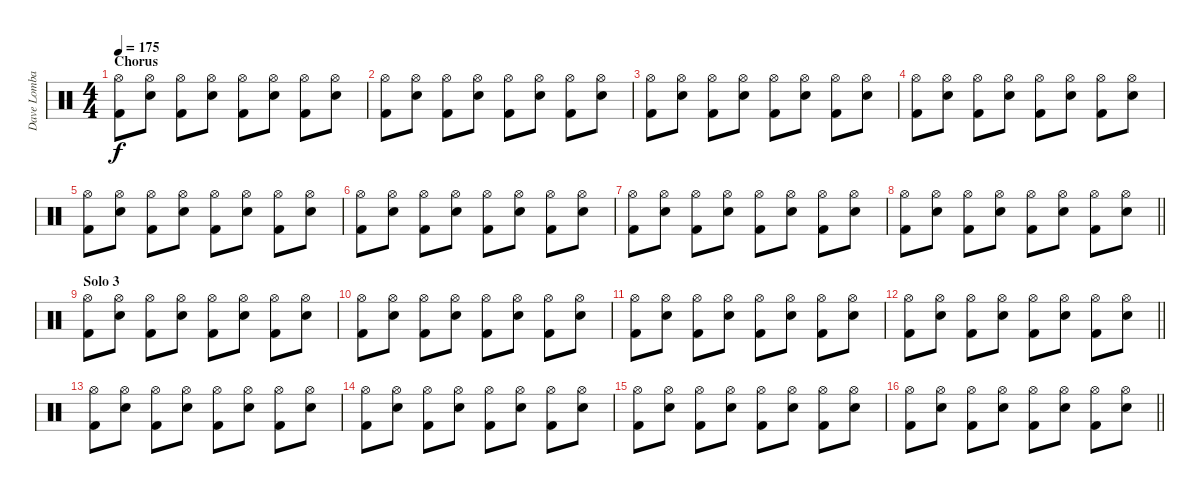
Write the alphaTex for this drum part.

\track ("Dave Lombardo" "Dave Lomba") {instrument percussion}
\staff {score}
\articulation defaults
\ts (4 4)
\section ("" "Chorus")
\tempo 175
\clef neutral
\ks c
("Hi-Hat (open)" "Kick (hit) 2").8{dy f} ("Hi-Hat (open)" "Snare (hit) 2").8 ("Hi-Hat (open)" "Kick (hit) 2").8 ("Hi-Hat (open)" "Snare (hit) 2").8 ("Hi-Hat (open)" "Kick (hit) 2").8 ("Hi-Hat (open)" "Snare (hit) 2").8 ("Hi-Hat (open)" "Kick (hit) 2").8 ("Hi-Hat (open)" "Snare (hit) 2").8 |
("Hi-Hat (open)" "Kick (hit) 2").8 ("Hi-Hat (open)" "Snare (hit) 2").8 ("Hi-Hat (open)" "Kick (hit) 2").8 ("Hi-Hat (open)" "Snare (hit) 2").8 ("Hi-Hat (open)" "Kick (hit) 2").8 ("Hi-Hat (open)" "Snare (hit) 2").8 ("Hi-Hat (open)" "Kick (hit) 2").8 ("Hi-Hat (open)" "Snare (hit) 2").8 |
("Hi-Hat (open)" "Kick (hit) 2").8 ("Hi-Hat (open)" "Snare (hit) 2").8 ("Hi-Hat (open)" "Kick (hit) 2").8 ("Hi-Hat (open)" "Snare (hit) 2").8 ("Hi-Hat (open)" "Kick (hit) 2").8 ("Hi-Hat (open)" "Snare (hit) 2").8 ("Hi-Hat (open)" "Kick (hit) 2").8 ("Hi-Hat (open)" "Snare (hit) 2").8 |
("Hi-Hat (open)" "Kick (hit) 2").8 ("Hi-Hat (open)" "Snare (hit) 2").8 ("Hi-Hat (open)" "Kick (hit) 2").8 ("Hi-Hat (open)" "Snare (hit) 2").8 ("Hi-Hat (open)" "Kick (hit) 2").8 ("Hi-Hat (open)" "Snare (hit) 2").8 ("Hi-Hat (open)" "Kick (hit) 2").8 ("Hi-Hat (open)" "Snare (hit) 2").8 |
("Hi-Hat (open)" "Kick (hit) 2").8 ("Hi-Hat (open)" "Snare (hit) 2").8 ("Hi-Hat (open)" "Kick (hit) 2").8 ("Hi-Hat (open)" "Snare (hit) 2").8 ("Hi-Hat (open)" "Kick (hit) 2").8 ("Hi-Hat (open)" "Snare (hit) 2").8 ("Hi-Hat (open)" "Kick (hit) 2").8 ("Hi-Hat (open)" "Snare (hit) 2").8 |
("Hi-Hat (open)" "Kick (hit) 2").8 ("Hi-Hat (open)" "Snare (hit) 2").8 ("Hi-Hat (open)" "Kick (hit) 2").8 ("Hi-Hat (open)" "Snare (hit) 2").8 ("Hi-Hat (open)" "Kick (hit) 2").8 ("Hi-Hat (open)" "Snare (hit) 2").8 ("Hi-Hat (open)" "Kick (hit) 2").8 ("Hi-Hat (open)" "Snare (hit) 2").8 |
("Hi-Hat (open)" "Kick (hit) 2").8 ("Hi-Hat (open)" "Snare (hit) 2").8 ("Hi-Hat (open)" "Kick (hit) 2").8 ("Hi-Hat (open)" "Snare (hit) 2").8 ("Hi-Hat (open)" "Kick (hit) 2").8 ("Hi-Hat (open)" "Snare (hit) 2").8 ("Hi-Hat (open)" "Kick (hit) 2").8 ("Hi-Hat (open)" "Snare (hit) 2").8 |
\barLineRight lightlight
("Hi-Hat (open)" "Kick (hit) 2").8 ("Hi-Hat (open)" "Snare (hit) 2").8 ("Hi-Hat (open)" "Kick (hit) 2").8 ("Hi-Hat (open)" "Snare (hit) 2").8 ("Hi-Hat (open)" "Kick (hit) 2").8 ("Hi-Hat (open)" "Snare (hit) 2").8 ("Hi-Hat (open)" "Kick (hit) 2").8 ("Hi-Hat (open)" "Snare (hit) 2").8 |
\section ("" "Solo 3")
("Hi-Hat (open)" "Kick (hit) 2").8 ("Hi-Hat (open)" "Snare (hit) 2").8 ("Hi-Hat (open)" "Kick (hit) 2").8 ("Hi-Hat (open)" "Snare (hit) 2").8 ("Hi-Hat (open)" "Kick (hit) 2").8 ("Hi-Hat (open)" "Snare (hit) 2").8 ("Hi-Hat (open)" "Kick (hit) 2").8 ("Hi-Hat (open)" "Snare (hit) 2").8 |
("Hi-Hat (open)" "Kick (hit) 2").8 ("Hi-Hat (open)" "Snare (hit) 2").8 ("Hi-Hat (open)" "Kick (hit) 2").8 ("Hi-Hat (open)" "Snare (hit) 2").8 ("Hi-Hat (open)" "Kick (hit) 2").8 ("Hi-Hat (open)" "Snare (hit) 2").8 ("Hi-Hat (open)" "Kick (hit) 2").8 ("Hi-Hat (open)" "Snare (hit) 2").8 |
("Hi-Hat (open)" "Kick (hit) 2").8 ("Hi-Hat (open)" "Snare (hit) 2").8 ("Hi-Hat (open)" "Kick (hit) 2").8 ("Hi-Hat (open)" "Snare (hit) 2").8 ("Hi-Hat (open)" "Kick (hit) 2").8 ("Hi-Hat (open)" "Snare (hit) 2").8 ("Hi-Hat (open)" "Kick (hit) 2").8 ("Hi-Hat (open)" "Snare (hit) 2").8 |
\barLineRight lightlight
("Hi-Hat (open)" "Kick (hit) 2").8 ("Hi-Hat (open)" "Snare (hit) 2").8 ("Hi-Hat (open)" "Kick (hit) 2").8 ("Hi-Hat (open)" "Snare (hit) 2").8 ("Hi-Hat (open)" "Kick (hit) 2").8 ("Hi-Hat (open)" "Snare (hit) 2").8 ("Hi-Hat (open)" "Kick (hit) 2").8 ("Hi-Hat (open)" "Snare (hit) 2").8 |
("Hi-Hat (open)" "Kick (hit) 2").8 ("Hi-Hat (open)" "Snare (hit) 2").8 ("Hi-Hat (open)" "Kick (hit) 2").8 ("Hi-Hat (open)" "Snare (hit) 2").8 ("Hi-Hat (open)" "Kick (hit) 2").8 ("Hi-Hat (open)" "Snare (hit) 2").8 ("Hi-Hat (open)" "Kick (hit) 2").8 ("Hi-Hat (open)" "Snare (hit) 2").8 |
("Hi-Hat (open)" "Kick (hit) 2").8 ("Hi-Hat (open)" "Snare (hit) 2").8 ("Hi-Hat (open)" "Kick (hit) 2").8 ("Hi-Hat (open)" "Snare (hit) 2").8 ("Hi-Hat (open)" "Kick (hit) 2").8 ("Hi-Hat (open)" "Snare (hit) 2").8 ("Hi-Hat (open)" "Kick (hit) 2").8 ("Hi-Hat (open)" "Snare (hit) 2").8 |
("Hi-Hat (open)" "Kick (hit) 2").8 ("Hi-Hat (open)" "Snare (hit) 2").8 ("Hi-Hat (open)" "Kick (hit) 2").8 ("Hi-Hat (open)" "Snare (hit) 2").8 ("Hi-Hat (open)" "Kick (hit) 2").8 ("Hi-Hat (open)" "Snare (hit) 2").8 ("Hi-Hat (open)" "Kick (hit) 2").8 ("Hi-Hat (open)" "Snare (hit) 2").8 |
\barLineRight lightlight
("Hi-Hat (open)" "Kick (hit) 2").8 ("Hi-Hat (open)" "Snare (hit) 2").8 ("Hi-Hat (open)" "Kick (hit) 2").8 ("Hi-Hat (open)" "Snare (hit) 2").8 ("Hi-Hat (open)" "Kick (hit) 2").8 ("Hi-Hat (open)" "Snare (hit) 2").8 ("Hi-Hat (open)" "Kick (hit) 2").8 ("Hi-Hat (open)" "Snare (hit) 2").8
